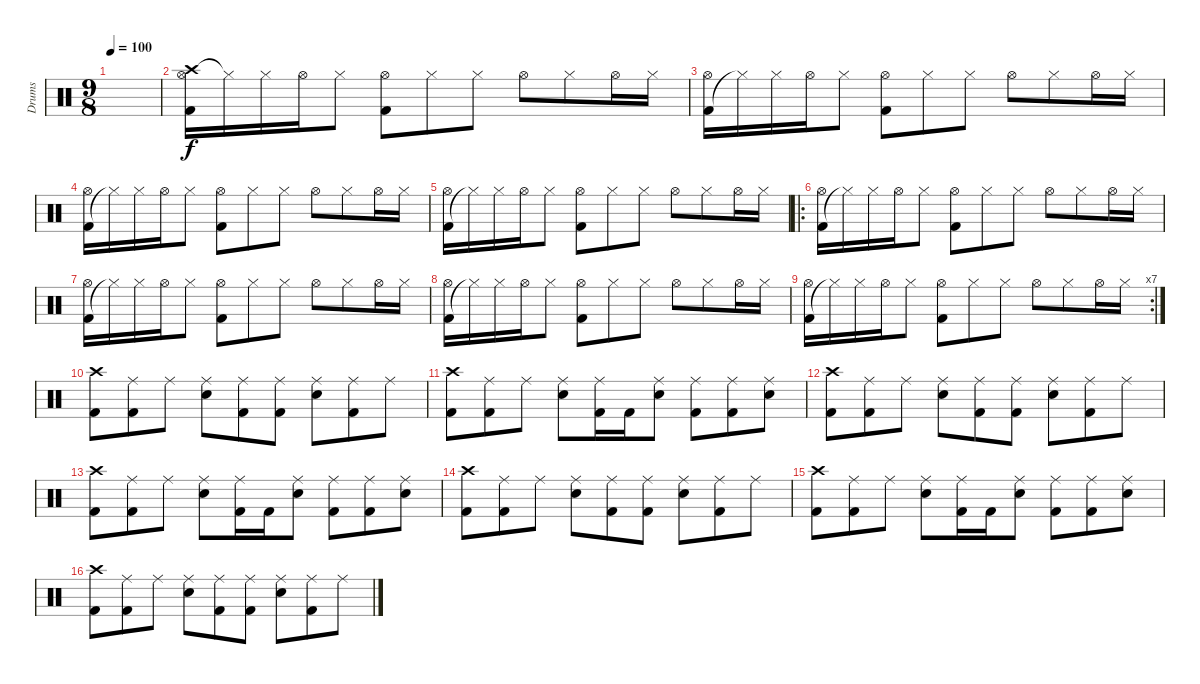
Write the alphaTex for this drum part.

\track ("Drums" "Drums") {instrument percussion}
\staff {score}
\articulation defaults
\ts (9 8)
\tempo 100
\clef neutral
\ks c
|
("Crash high (hit)" "Kick (hit) 2" "Hi-Hat (open)").16 "Hi-Hat (closed)"{t}.16 "Hi-Hat (closed)".16 "Hi-Hat (open)".16 "Hi-Hat (closed)".8 ("Kick (hit) 2" "Hi-Hat (open)").8 "Hi-Hat (closed)".8 "Hi-Hat (closed)".8 "Hi-Hat (open)".8 "Hi-Hat (closed)".8 "Hi-Hat (open)".16 "Hi-Hat (closed)".16 |
("Kick (hit) 2" "Hi-Hat (open)").16 "Hi-Hat (closed)"{t}.16 "Hi-Hat (closed)".16 "Hi-Hat (open)".16 "Hi-Hat (closed)".8 ("Kick (hit) 2" "Hi-Hat (open)").8 "Hi-Hat (closed)".8 "Hi-Hat (closed)".8 "Hi-Hat (open)".8 "Hi-Hat (closed)".8 "Hi-Hat (open)".16 "Hi-Hat (closed)".16 |
("Kick (hit) 2" "Hi-Hat (open)").16 "Hi-Hat (closed)"{t}.16 "Hi-Hat (closed)".16 "Hi-Hat (open)".16 "Hi-Hat (closed)".8 ("Kick (hit) 2" "Hi-Hat (open)").8 "Hi-Hat (closed)".8 "Hi-Hat (closed)".8 "Hi-Hat (open)".8 "Hi-Hat (closed)".8 "Hi-Hat (open)".16 "Hi-Hat (closed)".16 |
("Kick (hit) 2" "Hi-Hat (open)").16 "Hi-Hat (closed)"{t}.16 "Hi-Hat (closed)".16 "Hi-Hat (open)".16 "Hi-Hat (closed)".8 ("Kick (hit) 2" "Hi-Hat (open)").8 "Hi-Hat (closed)".8 "Hi-Hat (closed)".8 "Hi-Hat (open)".8 "Hi-Hat (closed)".8 "Hi-Hat (open)".16 "Hi-Hat (closed)".16 |
\ro
("Kick (hit) 2" "Hi-Hat (open)").16 "Hi-Hat (closed)"{t}.16 "Hi-Hat (closed)".16 "Hi-Hat (open)".16 "Hi-Hat (closed)".8 ("Kick (hit) 2" "Hi-Hat (open)").8 "Hi-Hat (closed)".8 "Hi-Hat (closed)".8 "Hi-Hat (open)".8 "Hi-Hat (closed)".8 "Hi-Hat (open)".16 "Hi-Hat (closed)".16 |
("Kick (hit) 2" "Hi-Hat (open)").16 "Hi-Hat (closed)"{t}.16 "Hi-Hat (closed)".16 "Hi-Hat (open)".16 "Hi-Hat (closed)".8 ("Kick (hit) 2" "Hi-Hat (open)").8 "Hi-Hat (closed)".8 "Hi-Hat (closed)".8 "Hi-Hat (open)".8 "Hi-Hat (closed)".8 "Hi-Hat (open)".16 "Hi-Hat (closed)".16 |
("Kick (hit) 2" "Hi-Hat (open)").16 "Hi-Hat (closed)"{t}.16 "Hi-Hat (closed)".16 "Hi-Hat (open)".16 "Hi-Hat (closed)".8 ("Kick (hit) 2" "Hi-Hat (open)").8 "Hi-Hat (closed)".8 "Hi-Hat (closed)".8 "Hi-Hat (open)".8 "Hi-Hat (closed)".8 "Hi-Hat (open)".16 "Hi-Hat (closed)".16 |
\rc 7
("Kick (hit) 2" "Hi-Hat (open)").16 "Hi-Hat (closed)"{t}.16 "Hi-Hat (closed)".16 "Hi-Hat (open)".16 "Hi-Hat (closed)".8 ("Kick (hit) 2" "Hi-Hat (open)").8 "Hi-Hat (closed)".8 "Hi-Hat (closed)".8 "Hi-Hat (open)".8 "Hi-Hat (closed)".8 "Hi-Hat (open)".16 "Hi-Hat (closed)".16 |
("Crash high (hit)" "Kick (hit) 2").8 ("Ride (middle)" "Kick (hit) 2").8 "Ride (middle)".8 ("Ride (middle)" "Snare (hit) 2").8 ("Ride (middle)" "Kick (hit) 2").8 ("Ride (middle)" "Kick (hit) 2").8 ("Ride (middle)" "Snare (hit) 2").8 ("Ride (middle)" "Kick (hit) 2").8 "Ride (middle)".8 |
("Crash high (hit)" "Kick (hit) 2").8 ("Ride (middle)" "Kick (hit) 2").8 "Ride (middle)".8 ("Ride (middle)" "Snare (hit) 2").8 ("Ride (middle)" "Kick (hit) 2").16 "Kick (hit) 2".16 ("Ride (middle)" "Snare (hit) 2").8 ("Ride (middle)" "Kick (hit) 2").8 ("Ride (middle)" "Kick (hit) 2").8 ("Ride (middle)" "Snare (hit) 2").8 |
("Crash high (hit)" "Kick (hit) 2").8 ("Ride (middle)" "Kick (hit) 2").8 "Ride (middle)".8 ("Ride (middle)" "Snare (hit) 2").8 ("Ride (middle)" "Kick (hit) 2").8 ("Ride (middle)" "Kick (hit) 2").8 ("Ride (middle)" "Snare (hit) 2").8 ("Ride (middle)" "Kick (hit) 2").8 "Ride (middle)".8 |
("Crash high (hit)" "Kick (hit) 2").8 ("Ride (middle)" "Kick (hit) 2").8 "Ride (middle)".8 ("Ride (middle)" "Snare (hit) 2").8 ("Ride (middle)" "Kick (hit) 2").16 "Kick (hit) 2".16 ("Ride (middle)" "Snare (hit) 2").8 ("Ride (middle)" "Kick (hit) 2").8 ("Ride (middle)" "Kick (hit) 2").8 ("Ride (middle)" "Snare (hit) 2").8 |
("Crash high (hit)" "Kick (hit) 2").8 ("Ride (middle)" "Kick (hit) 2").8 "Ride (middle)".8 ("Ride (middle)" "Snare (hit) 2").8 ("Ride (middle)" "Kick (hit) 2").8 ("Ride (middle)" "Kick (hit) 2").8 ("Ride (middle)" "Snare (hit) 2").8 ("Ride (middle)" "Kick (hit) 2").8 "Ride (middle)".8 |
("Crash high (hit)" "Kick (hit) 2").8 ("Ride (middle)" "Kick (hit) 2").8 "Ride (middle)".8 ("Ride (middle)" "Snare (hit) 2").8 ("Ride (middle)" "Kick (hit) 2").16 "Kick (hit) 2".16 ("Ride (middle)" "Snare (hit) 2").8 ("Ride (middle)" "Kick (hit) 2").8 ("Ride (middle)" "Kick (hit) 2").8 ("Ride (middle)" "Snare (hit) 2").8 |
("Crash high (hit)" "Kick (hit) 2").8 ("Ride (middle)" "Kick (hit) 2").8 "Ride (middle)".8 ("Ride (middle)" "Snare (hit) 2").8 ("Ride (middle)" "Kick (hit) 2").8 ("Ride (middle)" "Kick (hit) 2").8 ("Ride (middle)" "Snare (hit) 2").8 ("Ride (middle)" "Kick (hit) 2").8 "Ride (middle)".8
